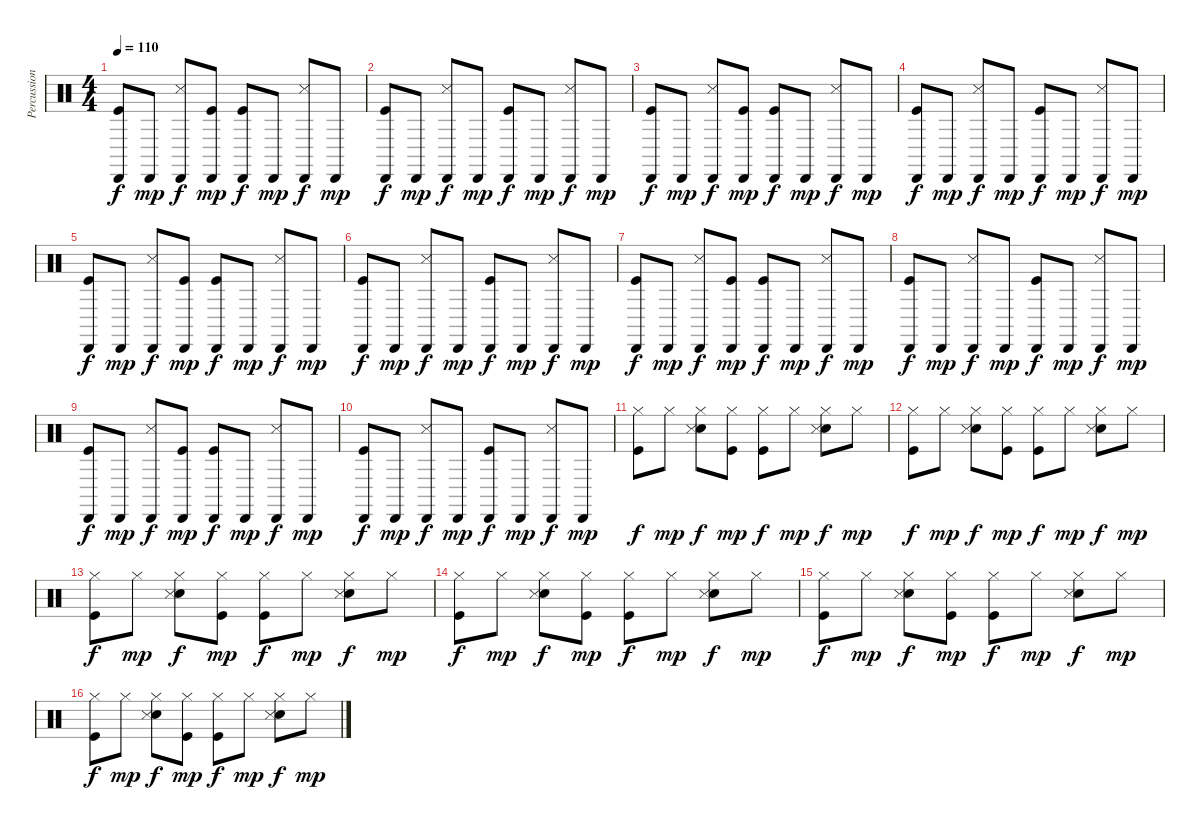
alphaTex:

\track ("Percussions" "Percussion") {instrument percussion}
\staff {score}
\articulation defaults
\ts (4 4)
\tempo 110
\clef neutral
\ks c
("Cabasa (hit)" "Kick (hit)").8{dy f} "Cabasa (hit)".8{dy mp} ("Cabasa (hit)" "Snare (side stick) 3").8{dy f} ("Cabasa (hit)" "Kick (hit)").8{dy mp} ("Cabasa (hit)" "Kick (hit)").8{dy f} "Cabasa (hit)".8{dy mp} ("Cabasa (hit)" "Snare (side stick) 3").8{dy f} "Cabasa (hit)".8{dy mp} |
("Cabasa (hit)" "Kick (hit)").8{dy f} "Cabasa (hit)".8{dy mp} ("Cabasa (hit)" "Snare (side stick) 3").8{dy f} "Cabasa (hit)".8{dy mp} ("Cabasa (hit)" "Kick (hit)").8{dy f} "Cabasa (hit)".8{dy mp} ("Cabasa (hit)" "Snare (side stick) 3").8{dy f} "Cabasa (hit)".8{dy mp} |
("Cabasa (hit)" "Kick (hit)").8{dy f} "Cabasa (hit)".8{dy mp} ("Cabasa (hit)" "Snare (side stick) 3").8{dy f} ("Cabasa (hit)" "Kick (hit)").8{dy mp} ("Cabasa (hit)" "Kick (hit)").8{dy f} "Cabasa (hit)".8{dy mp} ("Cabasa (hit)" "Snare (side stick) 3").8{dy f} "Cabasa (hit)".8{dy mp} |
("Cabasa (hit)" "Kick (hit)").8{dy f} "Cabasa (hit)".8{dy mp} ("Cabasa (hit)" "Snare (side stick) 3").8{dy f} "Cabasa (hit)".8{dy mp} ("Cabasa (hit)" "Kick (hit)").8{dy f} "Cabasa (hit)".8{dy mp} ("Cabasa (hit)" "Snare (side stick) 3").8{dy f} "Cabasa (hit)".8{dy mp} |
("Cabasa (hit)" "Kick (hit)").8{dy f} "Cabasa (hit)".8{dy mp} ("Cabasa (hit)" "Snare (side stick) 3").8{dy f} ("Cabasa (hit)" "Kick (hit)").8{dy mp} ("Cabasa (hit)" "Kick (hit)").8{dy f} "Cabasa (hit)".8{dy mp} ("Cabasa (hit)" "Snare (side stick) 3").8{dy f} "Cabasa (hit)".8{dy mp} |
("Cabasa (hit)" "Kick (hit)").8{dy f} "Cabasa (hit)".8{dy mp} ("Cabasa (hit)" "Snare (side stick) 3").8{dy f} "Cabasa (hit)".8{dy mp} ("Cabasa (hit)" "Kick (hit)").8{dy f} "Cabasa (hit)".8{dy mp} ("Cabasa (hit)" "Snare (side stick) 3").8{dy f} "Cabasa (hit)".8{dy mp} |
("Cabasa (hit)" "Kick (hit)").8{dy f} "Cabasa (hit)".8{dy mp} ("Cabasa (hit)" "Snare (side stick) 3").8{dy f} ("Cabasa (hit)" "Kick (hit)").8{dy mp} ("Cabasa (hit)" "Kick (hit)").8{dy f} "Cabasa (hit)".8{dy mp} ("Cabasa (hit)" "Snare (side stick) 3").8{dy f} "Cabasa (hit)".8{dy mp} |
("Cabasa (hit)" "Kick (hit)").8{dy f} "Cabasa (hit)".8{dy mp} ("Cabasa (hit)" "Snare (side stick) 3").8{dy f} "Cabasa (hit)".8{dy mp} ("Cabasa (hit)" "Kick (hit)").8{dy f} "Cabasa (hit)".8{dy mp} ("Cabasa (hit)" "Snare (side stick) 3").8{dy f} "Cabasa (hit)".8{dy mp} |
("Cabasa (hit)" "Kick (hit)").8{dy f} "Cabasa (hit)".8{dy mp} ("Cabasa (hit)" "Snare (side stick) 3").8{dy f} ("Cabasa (hit)" "Kick (hit)").8{dy mp} ("Cabasa (hit)" "Kick (hit)").8{dy f} "Cabasa (hit)".8{dy mp} ("Cabasa (hit)" "Snare (side stick) 3").8{dy f} "Cabasa (hit)".8{dy mp} |
("Cabasa (hit)" "Kick (hit)").8{dy f} "Cabasa (hit)".8{dy mp} ("Cabasa (hit)" "Snare (side stick) 3").8{dy f} "Cabasa (hit)".8{dy mp} ("Cabasa (hit)" "Kick (hit)").8{dy f} "Cabasa (hit)".8{dy mp} ("Cabasa (hit)" "Snare (side stick) 3").8{dy f} "Cabasa (hit)".8{dy mp} |
("Hi-Hat (closed)" "Kick (hit)").8{dy f} "Hi-Hat (closed)".8{dy mp} ("Hi-Hat (closed)" "Hand Clap (hit)" "Snare (side stick) 3").8{dy f} ("Hi-Hat (closed)" "Kick (hit)").8{dy mp} ("Hi-Hat (closed)" "Kick (hit)").8{dy f} "Hi-Hat (closed)".8{dy mp} ("Hi-Hat (closed)" "Hand Clap (hit)" "Snare (side stick) 3").8{dy f} "Hi-Hat (closed)".8{dy mp} |
("Hi-Hat (closed)" "Kick (hit)").8{dy f} "Hi-Hat (closed)".8{dy mp} ("Hi-Hat (closed)" "Hand Clap (hit)" "Snare (side stick) 3").8{dy f} ("Hi-Hat (closed)" "Kick (hit)").8{dy mp} ("Hi-Hat (closed)" "Kick (hit)").8{dy f} "Hi-Hat (closed)".8{dy mp} ("Hi-Hat (closed)" "Hand Clap (hit)" "Snare (side stick) 3").8{dy f} "Hi-Hat (closed)".8{dy mp} |
("Hi-Hat (closed)" "Kick (hit)").8{dy f} "Hi-Hat (closed)".8{dy mp} ("Hi-Hat (closed)" "Hand Clap (hit)" "Snare (side stick) 3").8{dy f} ("Hi-Hat (closed)" "Kick (hit)").8{dy mp} ("Hi-Hat (closed)" "Kick (hit)").8{dy f} "Hi-Hat (closed)".8{dy mp} ("Hi-Hat (closed)" "Hand Clap (hit)" "Snare (side stick) 3").8{dy f} "Hi-Hat (closed)".8{dy mp} |
("Hi-Hat (closed)" "Kick (hit)").8{dy f} "Hi-Hat (closed)".8{dy mp} ("Hi-Hat (closed)" "Hand Clap (hit)" "Snare (side stick) 3").8{dy f} ("Hi-Hat (closed)" "Kick (hit)").8{dy mp} ("Hi-Hat (closed)" "Kick (hit)").8{dy f} "Hi-Hat (closed)".8{dy mp} ("Hi-Hat (closed)" "Hand Clap (hit)" "Snare (side stick) 3").8{dy f} "Hi-Hat (closed)".8{dy mp} |
("Hi-Hat (closed)" "Kick (hit)").8{dy f} "Hi-Hat (closed)".8{dy mp} ("Hi-Hat (closed)" "Hand Clap (hit)" "Snare (side stick) 3").8{dy f} ("Hi-Hat (closed)" "Kick (hit)").8{dy mp} ("Hi-Hat (closed)" "Kick (hit)").8{dy f} "Hi-Hat (closed)".8{dy mp} ("Hi-Hat (closed)" "Hand Clap (hit)" "Snare (side stick) 3").8{dy f} "Hi-Hat (closed)".8{dy mp} |
("Hi-Hat (closed)" "Kick (hit)").8{dy f} "Hi-Hat (closed)".8{dy mp} ("Hi-Hat (closed)" "Hand Clap (hit)" "Snare (side stick) 3").8{dy f} ("Hi-Hat (closed)" "Kick (hit)").8{dy mp} ("Hi-Hat (closed)" "Kick (hit)").8{dy f} "Hi-Hat (closed)".8{dy mp} ("Hi-Hat (closed)" "Hand Clap (hit)" "Snare (side stick) 3").8{dy f} "Hi-Hat (closed)".8{dy mp}
